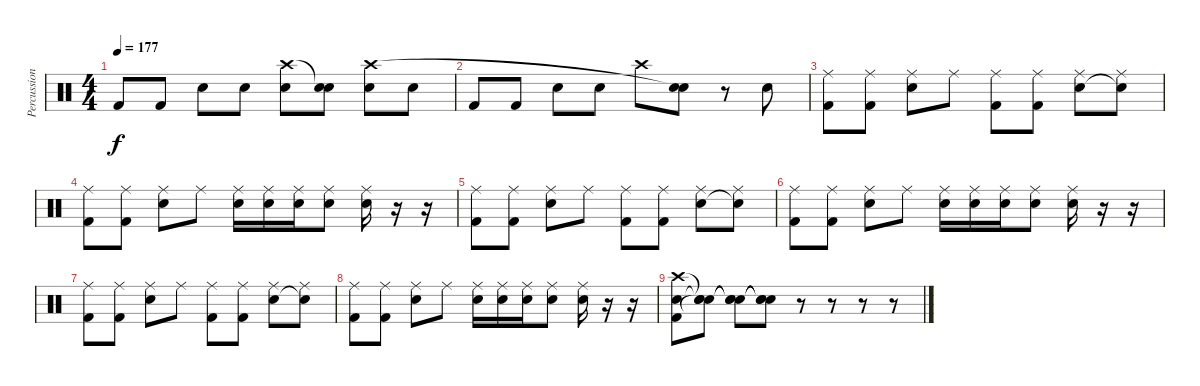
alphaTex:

\track ("Percussion" "Percussion") {instrument percussion}
\staff {score}
\articulation defaults
\ts (4 4)
\tempo 177
\clef neutral
\ks c "Kick (hit) 2".8{dy f} "Kick (hit) 2".8 "Electric Snare (hit)".8 "Electric Snare (hit)".8
("Electric Snare (hit)" "Crash high (hit)").8 ("Electric Snare (hit)" "Snare (hit)"{t}).8 ("Electric Snare (hit)" "Crash high (hit)").8 "Electric Snare (hit)".8 |
"Kick (hit) 2".8 "Kick (hit) 2".8 "Electric Snare (hit)".8 "Electric Snare (hit)".8 "Crash high (hit)".8 ("Electric Snare (hit)" "Snare (hit)"{t}).8 r.8 "Electric Snare (hit)".8 |
("Ride (middle)" "Kick (hit) 2").8 ("Ride (middle)" "Kick (hit) 2").8 ("Ride (middle)" "Electric Snare (hit)").8 "Ride (middle)".8 ("Ride (middle)" "Kick (hit) 2").8 ("Ride (middle)" "Kick (hit) 2").8 ("Ride (middle)" "Electric Snare (hit)").8 ("Ride (middle)" "Snare (hit)"{t}).8 |
("Ride (middle)" "Kick (hit) 2").8 ("Ride (middle)" "Kick (hit) 2").8 ("Ride (middle)" "Electric Snare (hit)").8 "Ride (middle)".8 ("Ride (middle)" "Electric Snare (hit)").16 ("Ride (middle)" "Electric Snare (hit)").16 ("Ride (middle)" "Electric Snare (hit)").16 ("Ride (middle)" "Electric Snare (hit)").8 ("Ride (middle)" "Electric Snare (hit)").16 r.16 r.16 |
("Ride (middle)" "Kick (hit) 2").8 ("Ride (middle)" "Kick (hit) 2").8 ("Ride (middle)" "Electric Snare (hit)").8 "Ride (middle)".8 ("Ride (middle)" "Kick (hit) 2").8 ("Ride (middle)" "Kick (hit) 2").8 ("Ride (middle)" "Electric Snare (hit)").8 ("Ride (middle)" "Snare (hit)"{t}).8 |
("Ride (middle)" "Kick (hit) 2").8 ("Ride (middle)" "Kick (hit) 2").8 ("Ride (middle)" "Electric Snare (hit)").8 "Ride (middle)".8 ("Ride (middle)" "Electric Snare (hit)").16 ("Ride (middle)" "Electric Snare (hit)").16 ("Ride (middle)" "Electric Snare (hit)").16 ("Ride (middle)" "Electric Snare (hit)").8 ("Ride (middle)" "Electric Snare (hit)").16 r.16 r.16 |
("Ride (middle)" "Kick (hit) 2").8 ("Ride (middle)" "Kick (hit) 2").8 ("Ride (middle)" "Electric Snare (hit)").8 "Ride (middle)".8 ("Ride (middle)" "Kick (hit) 2").8 ("Ride (middle)" "Kick (hit) 2").8 ("Ride (middle)" "Electric Snare (hit)").8 ("Ride (middle)" "Snare (hit)"{t}).8 |
("Ride (middle)" "Kick (hit) 2").8 ("Ride (middle)" "Kick (hit) 2").8 ("Ride (middle)" "Electric Snare (hit)").8 "Ride (middle)".8 ("Ride (middle)" "Electric Snare (hit)").16 ("Ride (middle)" "Electric Snare (hit)").16 ("Ride (middle)" "Electric Snare (hit)").16 ("Ride (middle)" "Electric Snare (hit)").8 ("Ride (middle)" "Electric Snare (hit)").16 r.16 r.16 |
("Kick (hit) 2" "Crash high (hit)" "Electric Snare (hit)").8 ("Snare (hit)"{t} "Snare (hit)"{t} "Snare (hit)"{t}).8 ("Snare (hit)"{t} "Snare (hit)"{t} "Snare (hit)"{t}).8 ("Snare (hit)"{t} "Snare (hit)"{t} "Snare (hit)"{t}).8 r.8 r.8 r.8 r.8
